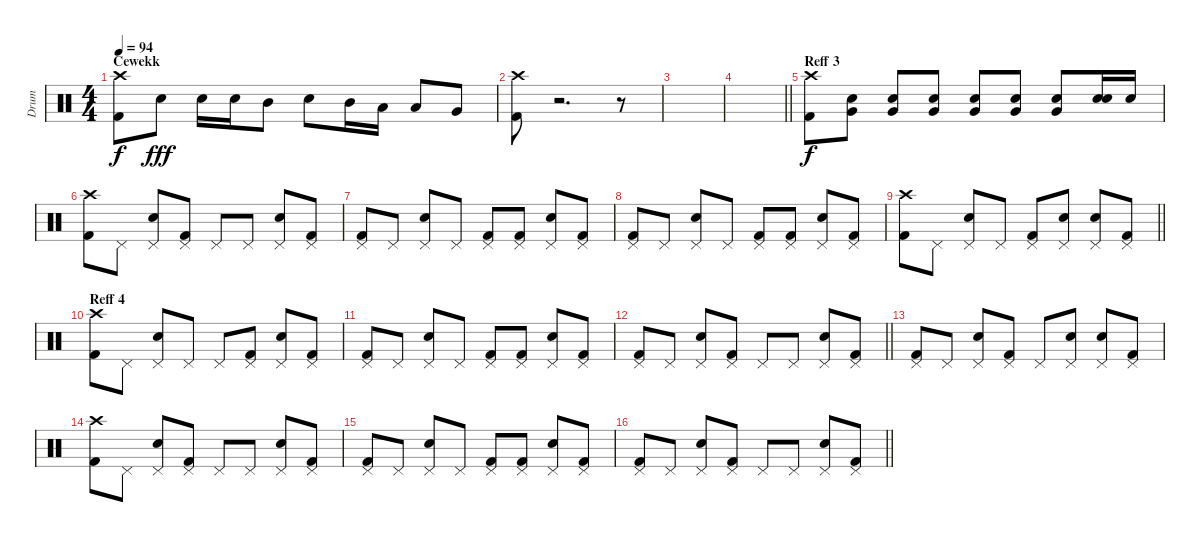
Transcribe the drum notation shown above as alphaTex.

\track ("Drum" "Drum") {instrument percussion}
\staff {score}
\articulation defaults
\ts (4 4)
\section ("" "Cewekk")
\tempo 94
\clef neutral
\ks c
("Crash high (hit)" "Kick (hit) 2").8{dy f} "Electric Snare (hit)".8{dy fff} "Electric Snare (hit)".16 "Electric Snare (hit)".16 "Mid Tom (hit)".8 "Electric Snare (hit)".8 "Mid Tom (hit)".16 "Low Tom (hit)".16 "Low Tom (hit)".8 "Very Low Tom (hit)".8 |
("Crash high (hit)" "Kick (hit) 2").8 r.2{d} r.8 |
|
\barLineRight lightlight
|
\section ("" "Reff 3")
("Crash high (hit)" "Kick (hit) 2").8{dy f} ("Very Low Tom (hit)" "Electric Snare (hit)").8 ("Very Low Tom (hit)" "Electric Snare (hit)").8 ("Very Low Tom (hit)" "Electric Snare (hit)").8 ("Very Low Tom (hit)" "Electric Snare (hit)").8 ("Very Low Tom (hit)" "Electric Snare (hit)").8 ("Very Low Tom (hit)" "Electric Snare (hit)").8 ("Electric Snare (hit)" "Electric Snare (hit)").16 "Electric Snare (hit)".16 |
("Crash high (hit)" "Kick (hit) 2").8 "Pedal Hi-Hat (hit)".8 ("Pedal Hi-Hat (hit)" "Electric Snare (hit)").8 ("Pedal Hi-Hat (hit)" "Kick (hit) 2").8 "Pedal Hi-Hat (hit)".8 "Pedal Hi-Hat (hit)".8 ("Pedal Hi-Hat (hit)" "Electric Snare (hit)").8 ("Pedal Hi-Hat (hit)" "Kick (hit) 2").8 |
("Pedal Hi-Hat (hit)" "Kick (hit) 2").8 "Pedal Hi-Hat (hit)".8 ("Pedal Hi-Hat (hit)" "Electric Snare (hit)").8 "Pedal Hi-Hat (hit)".8 ("Pedal Hi-Hat (hit)" "Kick (hit) 2").8 ("Pedal Hi-Hat (hit)" "Kick (hit) 2").8 ("Pedal Hi-Hat (hit)" "Electric Snare (hit)").8 ("Pedal Hi-Hat (hit)" "Kick (hit) 2").8 |
("Pedal Hi-Hat (hit)" "Kick (hit) 2").8 "Pedal Hi-Hat (hit)".8 ("Pedal Hi-Hat (hit)" "Electric Snare (hit)").8 "Pedal Hi-Hat (hit)".8 ("Pedal Hi-Hat (hit)" "Kick (hit) 2").8 ("Pedal Hi-Hat (hit)" "Kick (hit) 2").8 ("Pedal Hi-Hat (hit)" "Electric Snare (hit)").8 ("Pedal Hi-Hat (hit)" "Kick (hit) 2").8 |
\barLineRight lightlight
("Crash high (hit)" "Kick (hit) 2").8 "Pedal Hi-Hat (hit)".8 ("Pedal Hi-Hat (hit)" "Electric Snare (hit)").8 "Pedal Hi-Hat (hit)".8 ("Pedal Hi-Hat (hit)" "Kick (hit) 2").8 ("Pedal Hi-Hat (hit)" "Electric Snare (hit)").8 ("Pedal Hi-Hat (hit)" "Electric Snare (hit)").8 ("Pedal Hi-Hat (hit)" "Kick (hit) 2").8 |
\section ("" "Reff 4")
("Crash high (hit)" "Kick (hit) 2").8 "Pedal Hi-Hat (hit)".8 ("Pedal Hi-Hat (hit)" "Electric Snare (hit)").8 "Pedal Hi-Hat (hit)".8 "Pedal Hi-Hat (hit)".8 ("Pedal Hi-Hat (hit)" "Kick (hit) 2").8 ("Pedal Hi-Hat (hit)" "Electric Snare (hit)").8 ("Pedal Hi-Hat (hit)" "Kick (hit) 2").8 |
("Pedal Hi-Hat (hit)" "Kick (hit) 2").8 "Pedal Hi-Hat (hit)".8 ("Pedal Hi-Hat (hit)" "Electric Snare (hit)").8 "Pedal Hi-Hat (hit)".8 ("Pedal Hi-Hat (hit)" "Kick (hit) 2").8 ("Pedal Hi-Hat (hit)" "Kick (hit) 2").8 ("Pedal Hi-Hat (hit)" "Electric Snare (hit)").8 ("Pedal Hi-Hat (hit)" "Kick (hit) 2").8 |
\barLineRight lightlight
("Pedal Hi-Hat (hit)" "Kick (hit) 2").8 "Pedal Hi-Hat (hit)".8 ("Pedal Hi-Hat (hit)" "Electric Snare (hit)").8 ("Pedal Hi-Hat (hit)" "Kick (hit) 2").8 "Pedal Hi-Hat (hit)".8 "Pedal Hi-Hat (hit)".8 ("Pedal Hi-Hat (hit)" "Electric Snare (hit)").8 ("Pedal Hi-Hat (hit)" "Kick (hit) 2").8 |
("Pedal Hi-Hat (hit)" "Kick (hit) 2").8 "Pedal Hi-Hat (hit)".8 ("Pedal Hi-Hat (hit)" "Electric Snare (hit)").8 ("Pedal Hi-Hat (hit)" "Kick (hit) 2").8 "Pedal Hi-Hat (hit)".8 ("Pedal Hi-Hat (hit)" "Electric Snare (hit)").8 ("Pedal Hi-Hat (hit)" "Electric Snare (hit)").8 ("Pedal Hi-Hat (hit)" "Kick (hit) 2").8 |
("Crash high (hit)" "Kick (hit) 2").8 "Pedal Hi-Hat (hit)".8 ("Pedal Hi-Hat (hit)" "Electric Snare (hit)").8 ("Pedal Hi-Hat (hit)" "Kick (hit) 2").8 "Pedal Hi-Hat (hit)".8 "Pedal Hi-Hat (hit)".8 ("Pedal Hi-Hat (hit)" "Electric Snare (hit)").8 ("Pedal Hi-Hat (hit)" "Kick (hit) 2").8 |
("Pedal Hi-Hat (hit)" "Kick (hit) 2").8 "Pedal Hi-Hat (hit)".8 ("Pedal Hi-Hat (hit)" "Electric Snare (hit)").8 "Pedal Hi-Hat (hit)".8 ("Pedal Hi-Hat (hit)" "Kick (hit) 2").8 ("Pedal Hi-Hat (hit)" "Kick (hit) 2").8 ("Pedal Hi-Hat (hit)" "Electric Snare (hit)").8 ("Pedal Hi-Hat (hit)" "Kick (hit) 2").8 |
\barLineRight lightlight
("Pedal Hi-Hat (hit)" "Kick (hit) 2").8 "Pedal Hi-Hat (hit)".8 ("Pedal Hi-Hat (hit)" "Electric Snare (hit)").8 ("Pedal Hi-Hat (hit)" "Kick (hit) 2").8 "Pedal Hi-Hat (hit)".8 "Pedal Hi-Hat (hit)".8 ("Pedal Hi-Hat (hit)" "Electric Snare (hit)").8 ("Pedal Hi-Hat (hit)" "Kick (hit) 2").8
